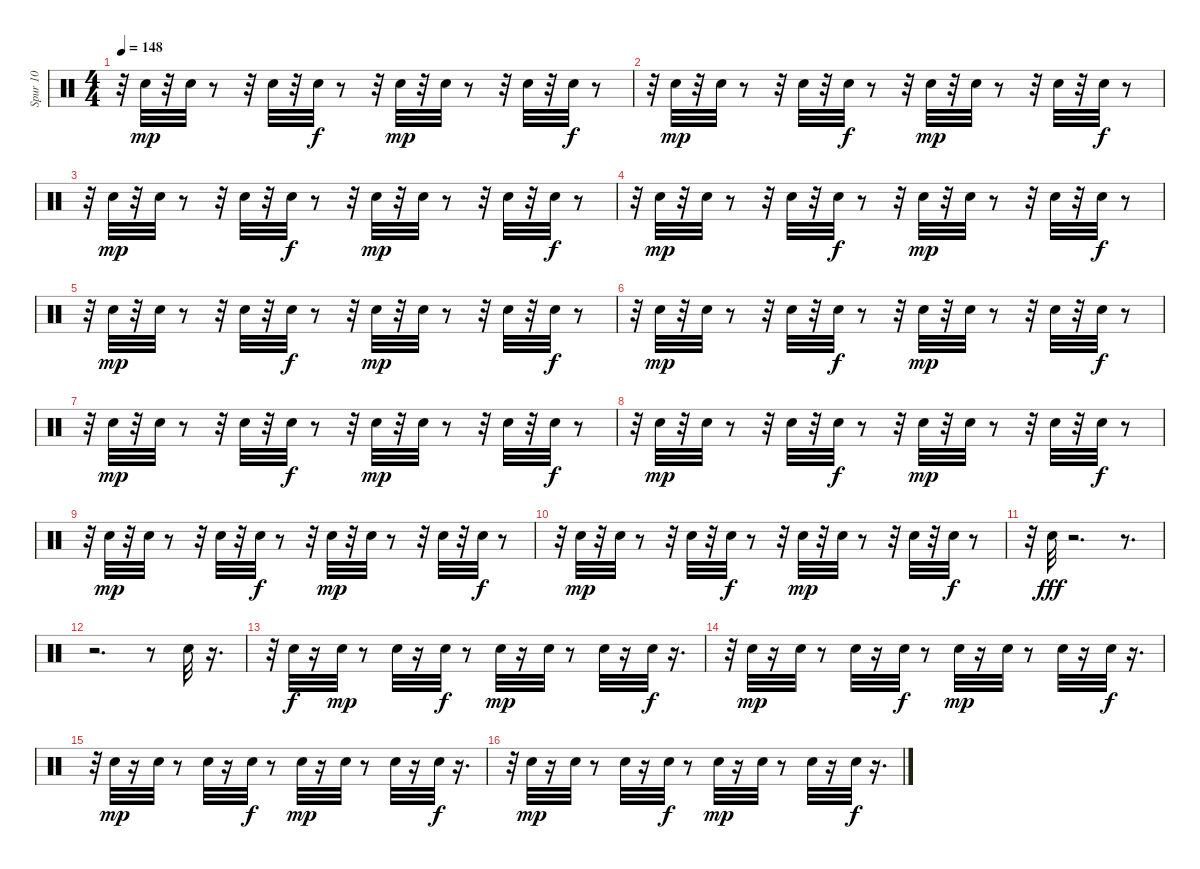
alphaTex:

\track ("Spur 10" "Spur 10") {instrument percussion}
\staff {score}
\articulation defaults
\ts (4 4)
\tempo 148
\clef neutral
\ks c
r.32{dy f} "Snare (hit) 2".32{dy mp} r.32 "Snare (hit) 2".32 r.8 r.32 "Snare (hit) 2".32 r.32 "Snare (hit) 2".32{dy f} r.8 r.32 "Snare (hit) 2".32{dy mp} r.32 "Snare (hit) 2".32 r.8 r.32 "Snare (hit) 2".32 r.32 "Snare (hit) 2".32{dy f} r.8 |
r.32 "Snare (hit) 2".32{dy mp} r.32 "Snare (hit) 2".32 r.8 r.32 "Snare (hit) 2".32 r.32 "Snare (hit) 2".32{dy f} r.8 r.32 "Snare (hit) 2".32{dy mp} r.32 "Snare (hit) 2".32 r.8 r.32 "Snare (hit) 2".32 r.32 "Snare (hit) 2".32{dy f} r.8 |
r.32 "Snare (hit) 2".32{dy mp} r.32 "Snare (hit) 2".32 r.8 r.32 "Snare (hit) 2".32 r.32 "Snare (hit) 2".32{dy f} r.8 r.32 "Snare (hit) 2".32{dy mp} r.32 "Snare (hit) 2".32 r.8 r.32 "Snare (hit) 2".32 r.32 "Snare (hit) 2".32{dy f} r.8 |
r.32 "Snare (hit) 2".32{dy mp} r.32 "Snare (hit) 2".32 r.8 r.32 "Snare (hit) 2".32 r.32 "Snare (hit) 2".32{dy f} r.8 r.32 "Snare (hit) 2".32{dy mp} r.32 "Snare (hit) 2".32 r.8 r.32 "Snare (hit) 2".32 r.32 "Snare (hit) 2".32{dy f} r.8 |
r.32 "Snare (hit) 2".32{dy mp} r.32 "Snare (hit) 2".32 r.8 r.32 "Snare (hit) 2".32 r.32 "Snare (hit) 2".32{dy f} r.8 r.32 "Snare (hit) 2".32{dy mp} r.32 "Snare (hit) 2".32 r.8 r.32 "Snare (hit) 2".32 r.32 "Snare (hit) 2".32{dy f} r.8 |
r.32 "Snare (hit) 2".32{dy mp} r.32 "Snare (hit) 2".32 r.8 r.32 "Snare (hit) 2".32 r.32 "Snare (hit) 2".32{dy f} r.8 r.32 "Snare (hit) 2".32{dy mp} r.32 "Snare (hit) 2".32 r.8 r.32 "Snare (hit) 2".32 r.32 "Snare (hit) 2".32{dy f} r.8 |
r.32 "Snare (hit) 2".32{dy mp} r.32 "Snare (hit) 2".32 r.8 r.32 "Snare (hit) 2".32 r.32 "Snare (hit) 2".32{dy f} r.8 r.32 "Snare (hit) 2".32{dy mp} r.32 "Snare (hit) 2".32 r.8 r.32 "Snare (hit) 2".32 r.32 "Snare (hit) 2".32{dy f} r.8 |
r.32 "Snare (hit) 2".32{dy mp} r.32 "Snare (hit) 2".32 r.8 r.32 "Snare (hit) 2".32 r.32 "Snare (hit) 2".32{dy f} r.8 r.32 "Snare (hit) 2".32{dy mp} r.32 "Snare (hit) 2".32 r.8 r.32 "Snare (hit) 2".32 r.32 "Snare (hit) 2".32{dy f} r.8 |
r.32 "Snare (hit) 2".32{dy mp} r.32 "Snare (hit) 2".32 r.8 r.32 "Snare (hit) 2".32 r.32 "Snare (hit) 2".32{dy f} r.8 r.32 "Snare (hit) 2".32{dy mp} r.32 "Snare (hit) 2".32 r.8 r.32 "Snare (hit) 2".32 r.32 "Snare (hit) 2".32{dy f} r.8 |
r.32 "Snare (hit) 2".32{dy mp} r.32 "Snare (hit) 2".32 r.8 r.32 "Snare (hit) 2".32 r.32 "Snare (hit) 2".32{dy f} r.8 r.32 "Snare (hit) 2".32{dy mp} r.32 "Snare (hit) 2".32 r.8 r.32 "Snare (hit) 2".32 r.32 "Snare (hit) 2".32{dy f} r.8 |
r.32 "Snare (hit) 2".32{dy fff} r.2{d} r.8{d} |
r.2{d} r.8 "Snare (hit) 2".32 r.16{d} |
r.32 "Snare (hit) 2".32{dy f} r.16 "Snare (hit) 2".32{dy mp} r.8 "Snare (hit) 2".32 r.16 "Snare (hit) 2".32{dy f} r.8 "Snare (hit) 2".32{dy mp} r.16 "Snare (hit) 2".32 r.8 "Snare (hit) 2".32 r.16 "Snare (hit) 2".32{dy f} r.16{d} |
r.32 "Snare (hit) 2".32{dy mp} r.16 "Snare (hit) 2".32 r.8 "Snare (hit) 2".32 r.16 "Snare (hit) 2".32{dy f} r.8 "Snare (hit) 2".32{dy mp} r.16 "Snare (hit) 2".32 r.8 "Snare (hit) 2".32 r.16 "Snare (hit) 2".32{dy f} r.16{d} |
r.32 "Snare (hit) 2".32{dy mp} r.16 "Snare (hit) 2".32 r.8 "Snare (hit) 2".32 r.16 "Snare (hit) 2".32{dy f} r.8 "Snare (hit) 2".32{dy mp} r.16 "Snare (hit) 2".32 r.8 "Snare (hit) 2".32 r.16 "Snare (hit) 2".32{dy f} r.16{d} |
r.32 "Snare (hit) 2".32{dy mp} r.16 "Snare (hit) 2".32 r.8 "Snare (hit) 2".32 r.16 "Snare (hit) 2".32{dy f} r.8 "Snare (hit) 2".32{dy mp} r.16 "Snare (hit) 2".32 r.8 "Snare (hit) 2".32 r.16 "Snare (hit) 2".32{dy f} r.16{d}
